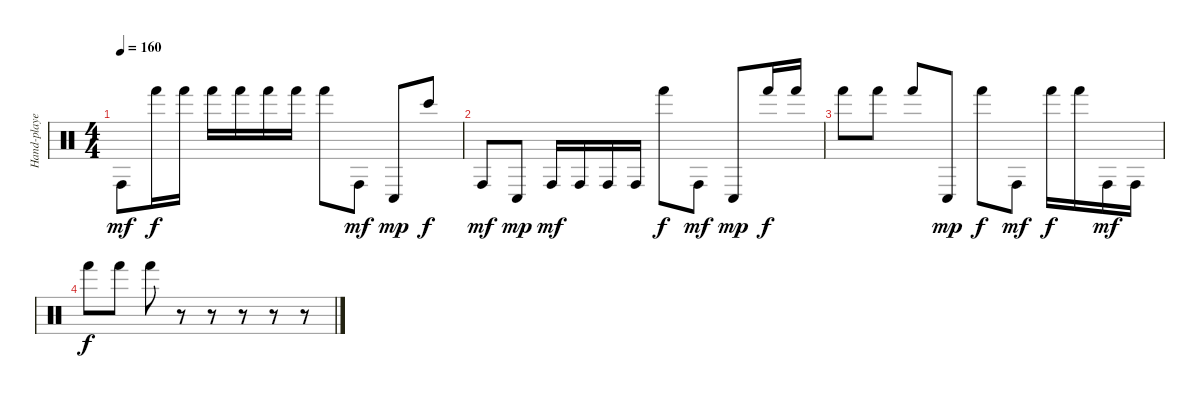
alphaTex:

\track ("Hand-played drums" "Hand-playe") {instrument percussion}
\staff {score}
\articulation defaults
\ts (4 4)
\tempo 160
\clef neutral
\ks c "Conga high (hit)".8{dy mf} "Hand (hit)".16{dy f} "Hand (hit)".16 "Hand (hit)".16 "Hand (hit)".16 "Hand (hit)".16 "Hand (hit)".16 "Hand (hit)".8 "Conga high (hit)".8{dy mf} "Conga low (hit)".8{dy mp} "Bongo High (hit)".8{dy f}
|
"Conga high (hit)".8{dy mf} "Conga low (hit)".8{dy mp} "Conga high (hit)".16{dy mf} "Conga high (hit)".16 "Conga high (hit)".16 "Conga high (hit)".16 "Hand (hit)".8{dy f} "Conga high (hit)".8{dy mf} "Conga low (hit)".8{dy mp} "Hand (hit)".16{dy f} "Hand (hit)".16 |
"Hand (hit)".8 "Hand (hit)".8 "Hand (hit)".8 "Conga low (hit)".8{dy mp} "Hand (hit)".8{dy f} "Conga high (hit)".8{dy mf} "Hand (hit)".16{dy f} "Hand (hit)".16 "Conga high (hit)".16{dy mf} "Conga high (hit)".16 |
"Hand (hit)".8{dy f} "Hand (hit)".8 "Hand (hit)".8 r.8 r.8 r.8 r.8 r.8
